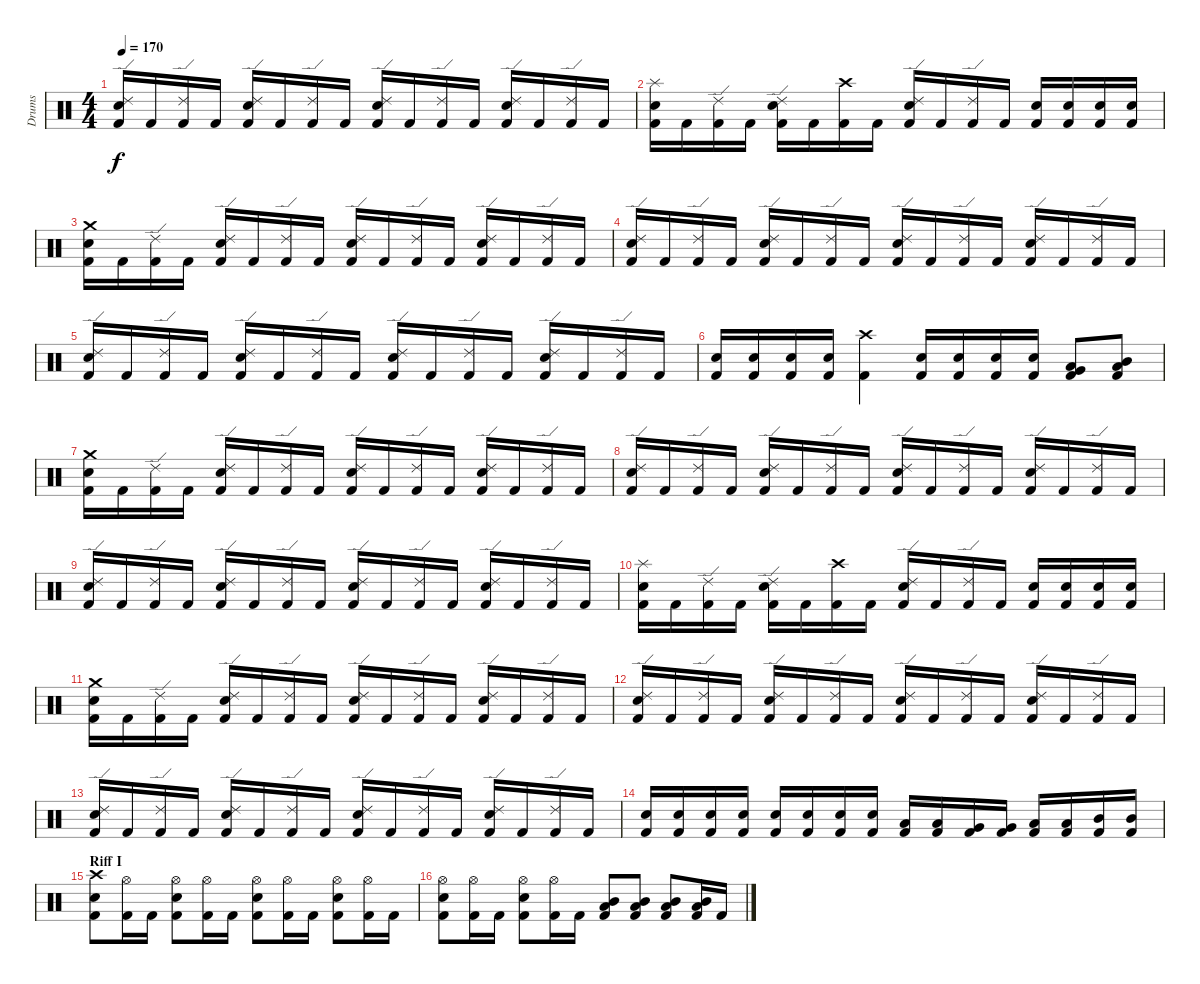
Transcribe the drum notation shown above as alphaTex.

\track ("Drums" "Drums") {instrument percussion}
\staff {score}
\articulation defaults
\ts (4 4)
\tempo 170
\clef neutral
\ks c
("Kick (hit) 2" "Snare (hit) 2" "Ride (edge) 2").16{dy f} "Kick (hit) 2".16 ("Kick (hit) 2" "Ride (edge) 2").16 "Kick (hit) 2".16 ("Kick (hit) 2" "Snare (hit) 2" "Ride (edge) 2").16 "Kick (hit) 2".16 ("Kick (hit) 2" "Ride (edge) 2").16 "Kick (hit) 2".16 ("Kick (hit) 2" "Snare (hit) 2" "Ride (edge) 2").16 "Kick (hit) 2".16 ("Kick (hit) 2" "Ride (edge) 2").16 "Kick (hit) 2".16 ("Kick (hit) 2" "Snare (hit) 2" "Ride (edge) 2").16 "Kick (hit) 2".16 ("Kick (hit) 2" "Ride (edge) 2").16 "Kick (hit) 2".16 |
("Kick (hit) 2" "Snare (hit) 2" "Splash (hit)").16 "Kick (hit) 2".16 ("Kick (hit) 2" "Ride (edge) 2").16 "Kick (hit) 2".16 ("Kick (hit) 2" "Snare (hit) 2" "Ride (edge) 2").16 "Kick (hit) 2".16 ("Kick (hit) 2" "Crash high (hit)").16 "Kick (hit) 2".16 ("Kick (hit) 2" "Snare (hit) 2" "Ride (edge) 2").16 "Kick (hit) 2".16 ("Kick (hit) 2" "Ride (edge) 2").16 "Kick (hit) 2".16 ("Kick (hit) 2" "Snare (hit) 2").16 ("Kick (hit) 2" "Snare (hit) 2").16 ("Kick (hit) 2" "Snare (hit) 2").16 ("Kick (hit) 2" "Snare (hit) 2").16 |
("Kick (hit) 2" "Snare (hit) 2" "Crash medium (hit)").16 "Kick (hit) 2".16 ("Kick (hit) 2" "Ride (edge) 2").16 "Kick (hit) 2".16 ("Kick (hit) 2" "Snare (hit) 2" "Ride (edge) 2").16 "Kick (hit) 2".16 ("Kick (hit) 2" "Ride (edge) 2").16 "Kick (hit) 2".16 ("Kick (hit) 2" "Snare (hit) 2" "Ride (edge) 2").16 "Kick (hit) 2".16 ("Kick (hit) 2" "Ride (edge) 2").16 "Kick (hit) 2".16 ("Kick (hit) 2" "Snare (hit) 2" "Ride (edge) 2").16 "Kick (hit) 2".16 ("Kick (hit) 2" "Ride (edge) 2").16 "Kick (hit) 2".16 |
("Kick (hit) 2" "Snare (hit) 2" "Ride (edge) 2").16 "Kick (hit) 2".16 ("Kick (hit) 2" "Ride (edge) 2").16 "Kick (hit) 2".16 ("Kick (hit) 2" "Snare (hit) 2" "Ride (edge) 2").16 "Kick (hit) 2".16 ("Kick (hit) 2" "Ride (edge) 2").16 "Kick (hit) 2".16 ("Kick (hit) 2" "Snare (hit) 2" "Ride (edge) 2").16 "Kick (hit) 2".16 ("Kick (hit) 2" "Ride (edge) 2").16 "Kick (hit) 2".16 ("Kick (hit) 2" "Snare (hit) 2" "Ride (edge) 2").16 "Kick (hit) 2".16 ("Kick (hit) 2" "Ride (edge) 2").16 "Kick (hit) 2".16 |
("Kick (hit) 2" "Snare (hit) 2" "Ride (edge) 2").16 "Kick (hit) 2".16 ("Kick (hit) 2" "Ride (edge) 2").16 "Kick (hit) 2".16 ("Kick (hit) 2" "Snare (hit) 2" "Ride (edge) 2").16 "Kick (hit) 2".16 ("Kick (hit) 2" "Ride (edge) 2").16 "Kick (hit) 2".16 ("Kick (hit) 2" "Snare (hit) 2" "Ride (edge) 2").16 "Kick (hit) 2".16 ("Kick (hit) 2" "Ride (edge) 2").16 "Kick (hit) 2".16 ("Kick (hit) 2" "Snare (hit) 2" "Ride (edge) 2").16 "Kick (hit) 2".16 ("Kick (hit) 2" "Ride (edge) 2").16 "Kick (hit) 2".16 |
("Kick (hit) 2" "Snare (hit) 2").16 ("Kick (hit) 2" "Snare (hit) 2").16 ("Kick (hit) 2" "Snare (hit) 2").16 ("Kick (hit) 2" "Snare (hit) 2").16 ("Kick (hit) 2" "Crash high (hit)").4 ("Kick (hit) 2" "Snare (hit) 2").16 ("Kick (hit) 2" "Snare (hit) 2").16 ("Kick (hit) 2" "Snare (hit) 2").16 ("Kick (hit) 2" "Snare (hit) 2").16 ("Kick (hit) 2" "Very Low Tom (hit)" "Low Floor Tom (hit)").8 ("Kick (hit) 2" "Mid Tom (hit)" "Low Tom (hit)").8 |
("Kick (hit) 2" "Snare (hit) 2" "Crash medium (hit)").16 "Kick (hit) 2".16 ("Kick (hit) 2" "Ride (edge) 2").16 "Kick (hit) 2".16 ("Kick (hit) 2" "Snare (hit) 2" "Ride (edge) 2").16 "Kick (hit) 2".16 ("Kick (hit) 2" "Ride (edge) 2").16 "Kick (hit) 2".16 ("Kick (hit) 2" "Snare (hit) 2" "Ride (edge) 2").16 "Kick (hit) 2".16 ("Kick (hit) 2" "Ride (edge) 2").16 "Kick (hit) 2".16 ("Kick (hit) 2" "Snare (hit) 2" "Ride (edge) 2").16 "Kick (hit) 2".16 ("Kick (hit) 2" "Ride (edge) 2").16 "Kick (hit) 2".16 |
("Kick (hit) 2" "Snare (hit) 2" "Ride (edge) 2").16 "Kick (hit) 2".16 ("Kick (hit) 2" "Ride (edge) 2").16 "Kick (hit) 2".16 ("Kick (hit) 2" "Snare (hit) 2" "Ride (edge) 2").16 "Kick (hit) 2".16 ("Kick (hit) 2" "Ride (edge) 2").16 "Kick (hit) 2".16 ("Kick (hit) 2" "Snare (hit) 2" "Ride (edge) 2").16 "Kick (hit) 2".16 ("Kick (hit) 2" "Ride (edge) 2").16 "Kick (hit) 2".16 ("Kick (hit) 2" "Snare (hit) 2" "Ride (edge) 2").16 "Kick (hit) 2".16 ("Kick (hit) 2" "Ride (edge) 2").16 "Kick (hit) 2".16 |
("Kick (hit) 2" "Snare (hit) 2" "Ride (edge) 2").16 "Kick (hit) 2".16 ("Kick (hit) 2" "Ride (edge) 2").16 "Kick (hit) 2".16 ("Kick (hit) 2" "Snare (hit) 2" "Ride (edge) 2").16 "Kick (hit) 2".16 ("Kick (hit) 2" "Ride (edge) 2").16 "Kick (hit) 2".16 ("Kick (hit) 2" "Snare (hit) 2" "Ride (edge) 2").16 "Kick (hit) 2".16 ("Kick (hit) 2" "Ride (edge) 2").16 "Kick (hit) 2".16 ("Kick (hit) 2" "Snare (hit) 2" "Ride (edge) 2").16 "Kick (hit) 2".16 ("Kick (hit) 2" "Ride (edge) 2").16 "Kick (hit) 2".16 |
("Kick (hit) 2" "Snare (hit) 2" "Splash (hit)").16 "Kick (hit) 2".16 ("Kick (hit) 2" "Ride (edge) 2").16 "Kick (hit) 2".16 ("Kick (hit) 2" "Snare (hit) 2" "Ride (edge) 2").16 "Kick (hit) 2".16 ("Kick (hit) 2" "Crash high (hit)").16 "Kick (hit) 2".16 ("Kick (hit) 2" "Snare (hit) 2" "Ride (edge) 2").16 "Kick (hit) 2".16 ("Kick (hit) 2" "Ride (edge) 2").16 "Kick (hit) 2".16 ("Kick (hit) 2" "Snare (hit) 2").16 ("Kick (hit) 2" "Snare (hit) 2").16 ("Kick (hit) 2" "Snare (hit) 2").16 ("Kick (hit) 2" "Snare (hit) 2").16 |
("Kick (hit) 2" "Snare (hit) 2" "Crash medium (hit)").16 "Kick (hit) 2".16 ("Kick (hit) 2" "Ride (edge) 2").16 "Kick (hit) 2".16 ("Kick (hit) 2" "Snare (hit) 2" "Ride (edge) 2").16 "Kick (hit) 2".16 ("Kick (hit) 2" "Ride (edge) 2").16 "Kick (hit) 2".16 ("Kick (hit) 2" "Snare (hit) 2" "Ride (edge) 2").16 "Kick (hit) 2".16 ("Kick (hit) 2" "Ride (edge) 2").16 "Kick (hit) 2".16 ("Kick (hit) 2" "Snare (hit) 2" "Ride (edge) 2").16 "Kick (hit) 2".16 ("Kick (hit) 2" "Ride (edge) 2").16 "Kick (hit) 2".16 |
("Kick (hit) 2" "Snare (hit) 2" "Ride (edge) 2").16 "Kick (hit) 2".16 ("Kick (hit) 2" "Ride (edge) 2").16 "Kick (hit) 2".16 ("Kick (hit) 2" "Snare (hit) 2" "Ride (edge) 2").16 "Kick (hit) 2".16 ("Kick (hit) 2" "Ride (edge) 2").16 "Kick (hit) 2".16 ("Kick (hit) 2" "Snare (hit) 2" "Ride (edge) 2").16 "Kick (hit) 2".16 ("Kick (hit) 2" "Ride (edge) 2").16 "Kick (hit) 2".16 ("Kick (hit) 2" "Snare (hit) 2" "Ride (edge) 2").16 "Kick (hit) 2".16 ("Kick (hit) 2" "Ride (edge) 2").16 "Kick (hit) 2".16 |
("Kick (hit) 2" "Snare (hit) 2" "Ride (edge) 2").16 "Kick (hit) 2".16 ("Kick (hit) 2" "Ride (edge) 2").16 "Kick (hit) 2".16 ("Kick (hit) 2" "Snare (hit) 2" "Ride (edge) 2").16 "Kick (hit) 2".16 ("Kick (hit) 2" "Ride (edge) 2").16 "Kick (hit) 2".16 ("Kick (hit) 2" "Snare (hit) 2" "Ride (edge) 2").16 "Kick (hit) 2".16 ("Kick (hit) 2" "Ride (edge) 2").16 "Kick (hit) 2".16 ("Kick (hit) 2" "Snare (hit) 2" "Ride (edge) 2").16 "Kick (hit) 2".16 ("Kick (hit) 2" "Ride (edge) 2").16 "Kick (hit) 2".16 |
("Kick (hit) 2" "Snare (hit) 2").16 ("Kick (hit) 2" "Snare (hit) 2").16 ("Kick (hit) 2" "Snare (hit) 2").16 ("Kick (hit) 2" "Snare (hit) 2").16 ("Kick (hit) 2" "Snare (hit) 2").16 ("Kick (hit) 2" "Snare (hit) 2").16 ("Kick (hit) 2" "Snare (hit) 2").16 ("Kick (hit) 2" "Snare (hit) 2").16 ("Kick (hit) 2" "Low Floor Tom (hit)").16 ("Kick (hit) 2" "Low Floor Tom (hit)").16 ("Kick (hit) 2" "Very Low Tom (hit)").16 ("Kick (hit) 2" "Very Low Tom (hit)").16 ("Kick (hit) 2" "Low Tom (hit)").16 ("Kick (hit) 2" "Low Tom (hit)").16 ("Kick (hit) 2" "Mid Tom (hit)").16 ("Kick (hit) 2" "Mid Tom (hit)").16 |
\section ("" "Riff I")
("Kick (hit) 2" "Snare (hit) 2" "Crash high (hit)").8 ("Kick (hit) 2" "Hi-Hat (open)").16 "Kick (hit) 2".16 ("Kick (hit) 2" "Snare (hit) 2" "Hi-Hat (open)").8 ("Kick (hit) 2" "Hi-Hat (open)").16 "Kick (hit) 2".16 ("Kick (hit) 2" "Snare (hit) 2" "Hi-Hat (open)").8 ("Kick (hit) 2" "Hi-Hat (open)").16 "Kick (hit) 2".16 ("Kick (hit) 2" "Snare (hit) 2" "Hi-Hat (open)").8 ("Kick (hit) 2" "Hi-Hat (open)").16 "Kick (hit) 2".16 |
("Kick (hit) 2" "Snare (hit) 2" "Hi-Hat (open)").8 ("Kick (hit) 2" "Hi-Hat (open)").16 "Kick (hit) 2".16 ("Kick (hit) 2" "Snare (hit) 2" "Hi-Hat (open)").8 ("Kick (hit) 2" "Hi-Hat (open)").16 "Kick (hit) 2".16 ("Kick (hit) 2" "Mid Tom (hit)" "Low Tom (hit)").8 ("Kick (hit) 2" "Mid Tom (hit)" "Low Tom (hit)").8 ("Kick (hit) 2" "Mid Tom (hit)" "Low Tom (hit)").8 ("Kick (hit) 2" "Mid Tom (hit)" "Low Tom (hit)").16 "Kick (hit) 2".16
